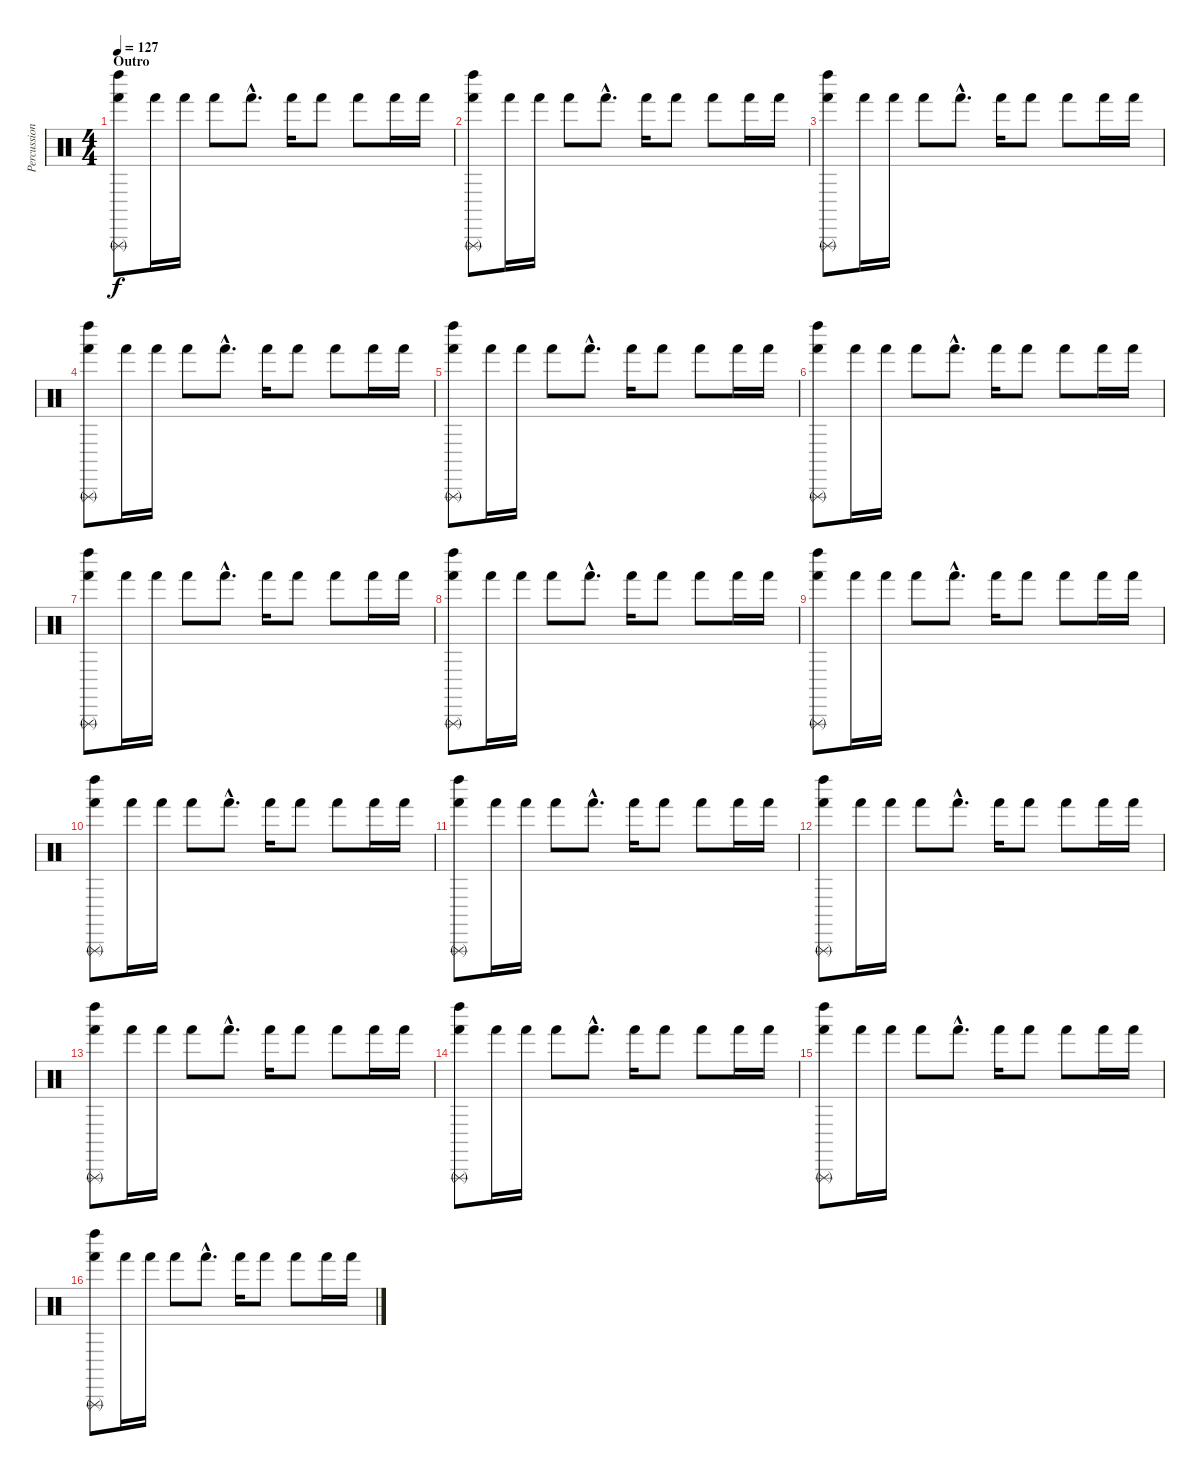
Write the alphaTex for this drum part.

\track ("Percussions" "Percussion") {instrument percussion}
\staff {score}
\articulation defaults
\ts (4 4)
\section ("" "Outro")
\tempo 127
\clef neutral
\ks c
("Hand (hit)" "Triangle (rnute)" "Left Maraca (hit)").8{dy f} "Hand (hit)".16 "Hand (hit)".16 "Hand (hit)".8 "Hand (hit)"{hac}.8{d} "Hand (hit)".16 "Hand (hit)".8 "Hand (hit)".8 "Hand (hit)".16 "Hand (hit)".16 |
("Hand (hit)" "Triangle (rnute)" "Left Maraca (hit)").8 "Hand (hit)".16 "Hand (hit)".16 "Hand (hit)".8 "Hand (hit)"{hac}.8{d} "Hand (hit)".16 "Hand (hit)".8 "Hand (hit)".8 "Hand (hit)".16 "Hand (hit)".16 |
("Hand (hit)" "Triangle (rnute)" "Left Maraca (hit)").8 "Hand (hit)".16 "Hand (hit)".16 "Hand (hit)".8 "Hand (hit)"{hac}.8{d} "Hand (hit)".16 "Hand (hit)".8 "Hand (hit)".8 "Hand (hit)".16 "Hand (hit)".16 |
("Hand (hit)" "Triangle (rnute)" "Left Maraca (hit)").8 "Hand (hit)".16 "Hand (hit)".16 "Hand (hit)".8 "Hand (hit)"{hac}.8{d} "Hand (hit)".16 "Hand (hit)".8 "Hand (hit)".8 "Hand (hit)".16 "Hand (hit)".16 |
("Hand (hit)" "Triangle (rnute)" "Left Maraca (hit)").8 "Hand (hit)".16 "Hand (hit)".16 "Hand (hit)".8 "Hand (hit)"{hac}.8{d} "Hand (hit)".16 "Hand (hit)".8 "Hand (hit)".8 "Hand (hit)".16 "Hand (hit)".16 |
("Hand (hit)" "Triangle (rnute)" "Left Maraca (hit)").8 "Hand (hit)".16 "Hand (hit)".16 "Hand (hit)".8 "Hand (hit)"{hac}.8{d} "Hand (hit)".16 "Hand (hit)".8 "Hand (hit)".8 "Hand (hit)".16 "Hand (hit)".16 |
("Hand (hit)" "Triangle (rnute)" "Left Maraca (hit)").8 "Hand (hit)".16 "Hand (hit)".16 "Hand (hit)".8 "Hand (hit)"{hac}.8{d} "Hand (hit)".16 "Hand (hit)".8 "Hand (hit)".8 "Hand (hit)".16 "Hand (hit)".16 |
("Hand (hit)" "Triangle (rnute)" "Left Maraca (hit)").8 "Hand (hit)".16 "Hand (hit)".16 "Hand (hit)".8 "Hand (hit)"{hac}.8{d} "Hand (hit)".16 "Hand (hit)".8 "Hand (hit)".8 "Hand (hit)".16 "Hand (hit)".16 |
("Hand (hit)" "Triangle (rnute)" "Left Maraca (hit)").8 "Hand (hit)".16 "Hand (hit)".16 "Hand (hit)".8 "Hand (hit)"{hac}.8{d} "Hand (hit)".16 "Hand (hit)".8 "Hand (hit)".8 "Hand (hit)".16 "Hand (hit)".16 |
("Hand (hit)" "Triangle (rnute)" "Left Maraca (hit)").8 "Hand (hit)".16 "Hand (hit)".16 "Hand (hit)".8 "Hand (hit)"{hac}.8{d} "Hand (hit)".16 "Hand (hit)".8 "Hand (hit)".8 "Hand (hit)".16 "Hand (hit)".16 |
("Hand (hit)" "Triangle (rnute)" "Left Maraca (hit)").8 "Hand (hit)".16 "Hand (hit)".16 "Hand (hit)".8 "Hand (hit)"{hac}.8{d} "Hand (hit)".16 "Hand (hit)".8 "Hand (hit)".8 "Hand (hit)".16 "Hand (hit)".16 |
("Hand (hit)" "Triangle (rnute)" "Left Maraca (hit)").8 "Hand (hit)".16 "Hand (hit)".16 "Hand (hit)".8 "Hand (hit)"{hac}.8{d} "Hand (hit)".16 "Hand (hit)".8 "Hand (hit)".8 "Hand (hit)".16 "Hand (hit)".16 |
("Hand (hit)" "Triangle (rnute)" "Left Maraca (hit)").8 "Hand (hit)".16 "Hand (hit)".16 "Hand (hit)".8 "Hand (hit)"{hac}.8{d} "Hand (hit)".16 "Hand (hit)".8 "Hand (hit)".8 "Hand (hit)".16 "Hand (hit)".16 |
("Hand (hit)" "Triangle (rnute)" "Left Maraca (hit)").8 "Hand (hit)".16 "Hand (hit)".16 "Hand (hit)".8 "Hand (hit)"{hac}.8{d} "Hand (hit)".16 "Hand (hit)".8 "Hand (hit)".8 "Hand (hit)".16 "Hand (hit)".16 |
("Hand (hit)" "Triangle (rnute)" "Left Maraca (hit)").8 "Hand (hit)".16 "Hand (hit)".16 "Hand (hit)".8 "Hand (hit)"{hac}.8{d} "Hand (hit)".16 "Hand (hit)".8 "Hand (hit)".8 "Hand (hit)".16 "Hand (hit)".16 |
("Hand (hit)" "Triangle (rnute)" "Left Maraca (hit)").8 "Hand (hit)".16 "Hand (hit)".16 "Hand (hit)".8 "Hand (hit)"{hac}.8{d} "Hand (hit)".16 "Hand (hit)".8 "Hand (hit)".8 "Hand (hit)".16 "Hand (hit)".16
